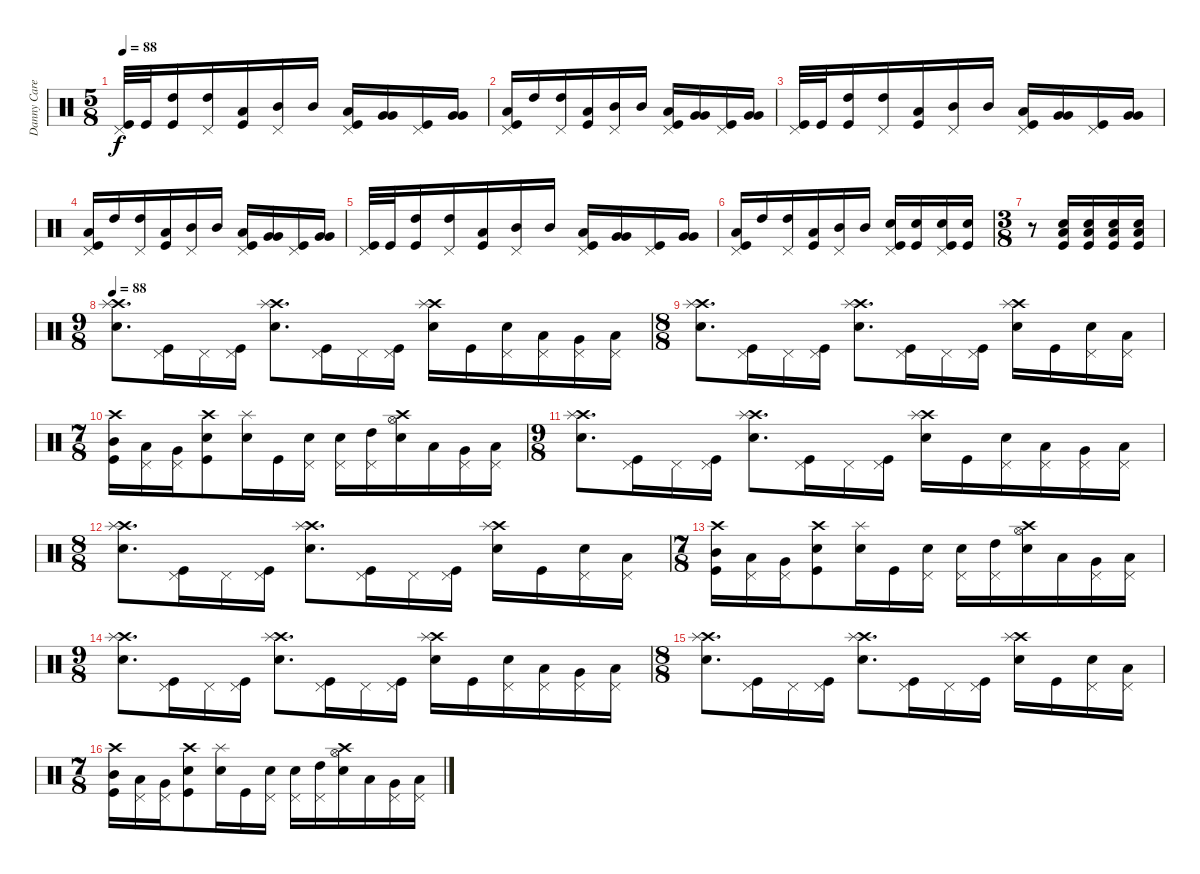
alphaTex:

\track ("Danny Carey" "Danny Care") {instrument percussion}
\staff {score}
\articulation defaults
\ts (5 8)
\tempo 88
\clef neutral
\ks c
("Pedal Hi-Hat (hit)" "Kick (hit)").32{dy f} "Kick (hit)".32 ("High Tom (hit)" "Kick (hit)").16 ("Pedal Hi-Hat (hit)" "High Tom (hit)").16 ("Low Floor Tom (hit)" "Kick (hit)").16 ("Pedal Hi-Hat (hit)" "Mid Tom (hit)").16 "Mid Tom (hit)".16 ("Pedal Hi-Hat (hit)" "Low Floor Tom (hit)" "Kick (hit)").16 ("Very Low Tom (hit)" "Very Low Tom (hit)").16 ("Pedal Hi-Hat (hit)" "Kick (hit)").16 ("Very Low Tom (hit)" "Very Low Tom (hit)").16 |
("Pedal Hi-Hat (hit)" "Low Floor Tom (hit)" "Kick (hit)").16 "High Tom (hit)".16 ("Pedal Hi-Hat (hit)" "High Tom (hit)").16 ("Low Floor Tom (hit)" "Kick (hit)").16 ("Pedal Hi-Hat (hit)" "Mid Tom (hit)").16 "Mid Tom (hit)".16 ("Pedal Hi-Hat (hit)" "Low Floor Tom (hit)" "Kick (hit)").16 ("Very Low Tom (hit)" "Very Low Tom (hit)").16 ("Pedal Hi-Hat (hit)" "Kick (hit)").16 ("Very Low Tom (hit)" "Very Low Tom (hit)").16 |
("Pedal Hi-Hat (hit)" "Kick (hit)").32 "Kick (hit)".32 ("High Tom (hit)" "Kick (hit)").16 ("Pedal Hi-Hat (hit)" "High Tom (hit)").16 ("Low Floor Tom (hit)" "Kick (hit)").16 ("Pedal Hi-Hat (hit)" "Mid Tom (hit)").16 "Mid Tom (hit)".16 ("Pedal Hi-Hat (hit)" "Low Floor Tom (hit)" "Kick (hit)").16 ("Very Low Tom (hit)" "Very Low Tom (hit)").16 ("Pedal Hi-Hat (hit)" "Kick (hit)").16 ("Very Low Tom (hit)" "Very Low Tom (hit)").16 |
("Pedal Hi-Hat (hit)" "Low Floor Tom (hit)" "Kick (hit)").16 "High Tom (hit)".16 ("Pedal Hi-Hat (hit)" "High Tom (hit)").16 ("Low Floor Tom (hit)" "Kick (hit)").16 ("Pedal Hi-Hat (hit)" "Mid Tom (hit)").16 "Mid Tom (hit)".16 ("Pedal Hi-Hat (hit)" "Low Floor Tom (hit)" "Kick (hit)").16 ("Very Low Tom (hit)" "Very Low Tom (hit)").16 ("Pedal Hi-Hat (hit)" "Kick (hit)").16 ("Very Low Tom (hit)" "Very Low Tom (hit)").16 |
("Pedal Hi-Hat (hit)" "Kick (hit)").32 "Kick (hit)".32 ("High Tom (hit)" "Kick (hit)").16 ("Pedal Hi-Hat (hit)" "High Tom (hit)").16 ("Low Floor Tom (hit)" "Kick (hit)").16 ("Pedal Hi-Hat (hit)" "Mid Tom (hit)").16 "Mid Tom (hit)".16 ("Pedal Hi-Hat (hit)" "Low Floor Tom (hit)" "Kick (hit)").16 ("Very Low Tom (hit)" "Very Low Tom (hit)").16 ("Pedal Hi-Hat (hit)" "Kick (hit)").16 ("Very Low Tom (hit)" "Very Low Tom (hit)").16 |
("Pedal Hi-Hat (hit)" "Low Floor Tom (hit)" "Kick (hit)").16 "High Tom (hit)".16 ("Pedal Hi-Hat (hit)" "High Tom (hit)").16 ("Low Floor Tom (hit)" "Kick (hit)").16 ("Pedal Hi-Hat (hit)" "Mid Tom (hit)").16 "Mid Tom (hit)".16 ("Pedal Hi-Hat (hit)" "Electric Snare (hit)" "Kick (hit)").16 ("Electric Snare (hit)" "Kick (hit)").16 ("Pedal Hi-Hat (hit)" "Electric Snare (hit)" "Kick (hit)").16 ("Electric Snare (hit)" "Kick (hit)").16 |
\ts (3 8)
r.8 ("Low Floor Tom (hit)" "Electric Snare (hit)" "Kick (hit)").16 ("Low Floor Tom (hit)" "Electric Snare (hit)" "Kick (hit)").16 ("Low Floor Tom (hit)" "Electric Snare (hit)" "Kick (hit)").16 ("Low Floor Tom (hit)" "Electric Snare (hit)" "Kick (hit)").16 |
\ts (9 8)
\tempo 88
("Crash high (hit)" "Splash (hit)" "Electric Snare (hit)").8{d} ("Pedal Hi-Hat (hit)" "Kick (hit)").16 "Pedal Hi-Hat (hit)".16 ("Pedal Hi-Hat (hit)" "Kick (hit)").16 ("Crash high (hit)" "Splash (hit)" "Electric Snare (hit)").8{d} ("Pedal Hi-Hat (hit)" "Kick (hit)").16 "Pedal Hi-Hat (hit)".16 ("Pedal Hi-Hat (hit)" "Kick (hit)").16 ("Crash high (hit)" "Splash (hit)" "Electric Snare (hit)").16 "Kick (hit)".16 ("Pedal Hi-Hat (hit)" "Electric Snare (hit)").16 ("Pedal Hi-Hat (hit)" "Low Tom (hit)").16 ("Pedal Hi-Hat (hit)" "Very Low Tom (hit)").16 ("Pedal Hi-Hat (hit)" "Low Floor Tom (hit)").16 |
\ts (8 8)
("Crash high (hit)" "Splash (hit)" "Electric Snare (hit)").8{d} ("Pedal Hi-Hat (hit)" "Kick (hit)").16 "Pedal Hi-Hat (hit)".16 ("Pedal Hi-Hat (hit)" "Kick (hit)").16 ("Crash high (hit)" "Splash (hit)" "Electric Snare (hit)").8{d} ("Pedal Hi-Hat (hit)" "Kick (hit)").16 "Pedal Hi-Hat (hit)".16 ("Pedal Hi-Hat (hit)" "Kick (hit)").16 ("Crash high (hit)" "Splash (hit)" "Electric Snare (hit)").16 "Kick (hit)".16 ("Pedal Hi-Hat (hit)" "Electric Snare (hit)").16 ("Pedal Hi-Hat (hit)" "Low Tom (hit)").16 |
\ts (7 8)
("Crash high (hit)" "Mid Tom (hit)" "Kick (hit)").16 ("Pedal Hi-Hat (hit)" "Low Tom (hit)").16 ("Pedal Hi-Hat (hit)" "Very Low Tom (hit)").16 ("Crash high (hit)" "Electric Snare (hit)" "Kick (hit)").8 ("Splash (hit)" "Electric Snare (hit)").16 "Kick (hit)".16 ("Pedal Hi-Hat (hit)" "Electric Snare (hit)").16 ("Pedal Hi-Hat (hit)" "Electric Snare (hit)").16 ("Pedal Hi-Hat (hit)" "High Tom (hit)").16 ("Crash high (hit)" "Hi-Hat (open)" "Electric Snare (hit)").16 "Low Tom (hit)".16 ("Pedal Hi-Hat (hit)" "Very Low Tom (hit)").16 ("Pedal Hi-Hat (hit)" "Low Floor Tom (hit)").16 |
\ts (9 8)
("Crash high (hit)" "Splash (hit)" "Electric Snare (hit)").8{d} ("Pedal Hi-Hat (hit)" "Kick (hit)").16 "Pedal Hi-Hat (hit)".16 ("Pedal Hi-Hat (hit)" "Kick (hit)").16 ("Crash high (hit)" "Splash (hit)" "Electric Snare (hit)").8{d} ("Pedal Hi-Hat (hit)" "Kick (hit)").16 "Pedal Hi-Hat (hit)".16 ("Pedal Hi-Hat (hit)" "Kick (hit)").16 ("Crash high (hit)" "Splash (hit)" "Electric Snare (hit)").16 "Kick (hit)".16 ("Pedal Hi-Hat (hit)" "Electric Snare (hit)").16 ("Pedal Hi-Hat (hit)" "Low Tom (hit)").16 ("Pedal Hi-Hat (hit)" "Very Low Tom (hit)").16 ("Pedal Hi-Hat (hit)" "Low Floor Tom (hit)").16 |
\ts (8 8)
("Crash high (hit)" "Splash (hit)" "Electric Snare (hit)").8{d} ("Pedal Hi-Hat (hit)" "Kick (hit)").16 "Pedal Hi-Hat (hit)".16 ("Pedal Hi-Hat (hit)" "Kick (hit)").16 ("Crash high (hit)" "Splash (hit)" "Electric Snare (hit)").8{d} ("Pedal Hi-Hat (hit)" "Kick (hit)").16 "Pedal Hi-Hat (hit)".16 ("Pedal Hi-Hat (hit)" "Kick (hit)").16 ("Crash high (hit)" "Splash (hit)" "Electric Snare (hit)").16 "Kick (hit)".16 ("Pedal Hi-Hat (hit)" "Electric Snare (hit)").16 ("Pedal Hi-Hat (hit)" "Low Tom (hit)").16 |
\ts (7 8)
("Crash high (hit)" "Mid Tom (hit)" "Kick (hit)").16 ("Pedal Hi-Hat (hit)" "Low Tom (hit)").16 ("Pedal Hi-Hat (hit)" "Very Low Tom (hit)").16 ("Crash high (hit)" "Electric Snare (hit)" "Kick (hit)").8 ("Splash (hit)" "Electric Snare (hit)").16 "Kick (hit)".16 ("Pedal Hi-Hat (hit)" "Electric Snare (hit)").16 ("Pedal Hi-Hat (hit)" "Electric Snare (hit)").16 ("Pedal Hi-Hat (hit)" "High Tom (hit)").16 ("Crash high (hit)" "Hi-Hat (open)" "Electric Snare (hit)").16 "Low Tom (hit)".16 ("Pedal Hi-Hat (hit)" "Very Low Tom (hit)").16 ("Pedal Hi-Hat (hit)" "Low Floor Tom (hit)").16 |
\ts (9 8)
("Crash high (hit)" "Splash (hit)" "Electric Snare (hit)").8{d} ("Pedal Hi-Hat (hit)" "Kick (hit)").16 "Pedal Hi-Hat (hit)".16 ("Pedal Hi-Hat (hit)" "Kick (hit)").16 ("Crash high (hit)" "Splash (hit)" "Electric Snare (hit)").8{d} ("Pedal Hi-Hat (hit)" "Kick (hit)").16 "Pedal Hi-Hat (hit)".16 ("Pedal Hi-Hat (hit)" "Kick (hit)").16 ("Crash high (hit)" "Splash (hit)" "Electric Snare (hit)").16 "Kick (hit)".16 ("Pedal Hi-Hat (hit)" "Electric Snare (hit)").16 ("Pedal Hi-Hat (hit)" "Low Tom (hit)").16 ("Pedal Hi-Hat (hit)" "Very Low Tom (hit)").16 ("Pedal Hi-Hat (hit)" "Low Floor Tom (hit)").16 |
\ts (8 8)
("Crash high (hit)" "Splash (hit)" "Electric Snare (hit)").8{d} ("Pedal Hi-Hat (hit)" "Kick (hit)").16 "Pedal Hi-Hat (hit)".16 ("Pedal Hi-Hat (hit)" "Kick (hit)").16 ("Crash high (hit)" "Splash (hit)" "Electric Snare (hit)").8{d} ("Pedal Hi-Hat (hit)" "Kick (hit)").16 "Pedal Hi-Hat (hit)".16 ("Pedal Hi-Hat (hit)" "Kick (hit)").16 ("Crash high (hit)" "Splash (hit)" "Electric Snare (hit)").16 "Kick (hit)".16 ("Pedal Hi-Hat (hit)" "Electric Snare (hit)").16 ("Pedal Hi-Hat (hit)" "Low Tom (hit)").16 |
\ts (7 8)
("Crash high (hit)" "Mid Tom (hit)" "Kick (hit)").16 ("Pedal Hi-Hat (hit)" "Low Tom (hit)").16 ("Pedal Hi-Hat (hit)" "Very Low Tom (hit)").16 ("Crash high (hit)" "Electric Snare (hit)" "Kick (hit)").8 ("Splash (hit)" "Electric Snare (hit)").16 "Kick (hit)".16 ("Pedal Hi-Hat (hit)" "Electric Snare (hit)").16 ("Pedal Hi-Hat (hit)" "Electric Snare (hit)").16 ("Pedal Hi-Hat (hit)" "High Tom (hit)").16 ("Crash high (hit)" "Hi-Hat (open)" "Electric Snare (hit)").16 "Low Tom (hit)".16 ("Pedal Hi-Hat (hit)" "Very Low Tom (hit)").16 ("Pedal Hi-Hat (hit)" "Low Floor Tom (hit)").16
